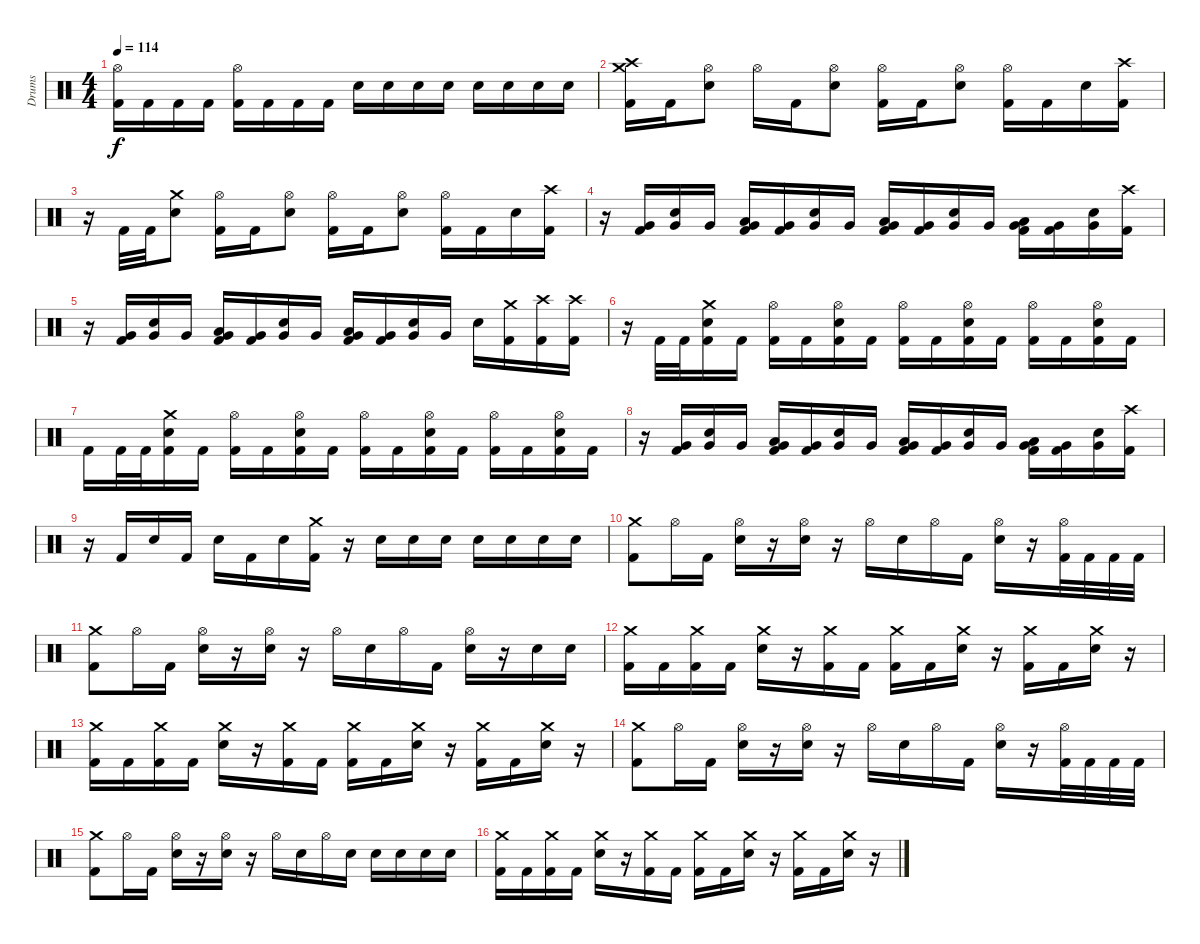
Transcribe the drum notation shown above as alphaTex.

\track ("Drums" "Drums") {instrument percussion}
\staff {score}
\articulation defaults
\ts (4 4)
\tempo 114
\clef neutral
\ks c
("Hi-Hat (open)" "Kick (hit) 2").16{dy f} "Kick (hit) 2".16 "Kick (hit) 2".16 "Kick (hit) 2".16 ("Hi-Hat (open)" "Kick (hit) 2").16 "Kick (hit) 2".16 "Kick (hit) 2".16 "Kick (hit) 2".16 "Snare (hit) 2".16 "Snare (hit) 2".16 "Snare (hit) 2".16 "Snare (hit) 2".16 "Snare (hit) 2".16 "Snare (hit) 2".16 "Snare (hit) 2".16 "Snare (hit) 2".16 |
("Crash high (hit)" "Crash medium (hit)" "Kick (hit) 2").16 "Kick (hit) 2".16 ("Hi-Hat (open)" "Snare (hit) 2").8 "Hi-Hat (open)".16 "Kick (hit) 2".16 ("Hi-Hat (open)" "Snare (hit) 2").8 ("Hi-Hat (open)" "Kick (hit) 2").16 "Kick (hit) 2".16 ("Hi-Hat (open)" "Snare (hit) 2").8 ("Hi-Hat (open)" "Kick (hit) 2").16 "Kick (hit) 2".16 "Snare (hit) 2".16 ("Crash high (hit)" "Kick (hit) 2").16 |
r.16 "Kick (hit) 2".32 "Kick (hit) 2".32 ("Crash medium (hit)" "Snare (hit) 2").8 ("Hi-Hat (open)" "Kick (hit) 2").16 "Kick (hit) 2".16 ("Hi-Hat (open)" "Snare (hit) 2").8 ("Hi-Hat (open)" "Kick (hit) 2").16 "Kick (hit) 2".16 ("Hi-Hat (open)" "Snare (hit) 2").8 ("Hi-Hat (open)" "Kick (hit) 2").16 "Kick (hit) 2".16 "Snare (hit) 2".16 ("Crash high (hit)" "Kick (hit) 2").16 |
r.16 ("Very Low Tom (hit)" "Kick (hit) 2").16 ("Very Low Tom (hit)" "Snare (hit) 2").16 "Very Low Tom (hit)".16 ("Very Low Tom (hit)" "Low Tom (hit)" "Kick (hit) 2").16 ("Very Low Tom (hit)" "Kick (hit) 2").16 ("Very Low Tom (hit)" "Snare (hit) 2").16 "Very Low Tom (hit)".16 ("Very Low Tom (hit)" "Low Tom (hit)" "Kick (hit) 2").16 ("Very Low Tom (hit)" "Kick (hit) 2").16 ("Very Low Tom (hit)" "Snare (hit) 2").16 "Very Low Tom (hit)".16 ("Very Low Tom (hit)" "Low Tom (hit)" "Kick (hit) 2").16 ("Very Low Tom (hit)" "Kick (hit) 2").16 ("Very Low Tom (hit)" "Snare (hit) 2").16 ("Crash high (hit)" "Kick (hit) 2").16 |
r.16 ("Very Low Tom (hit)" "Kick (hit) 2").16 ("Very Low Tom (hit)" "Snare (hit) 2").16 "Very Low Tom (hit)".16 ("Very Low Tom (hit)" "Low Tom (hit)" "Kick (hit) 2").16 ("Very Low Tom (hit)" "Kick (hit) 2").16 ("Very Low Tom (hit)" "Snare (hit) 2").16 "Very Low Tom (hit)".16 ("Very Low Tom (hit)" "Low Tom (hit)" "Kick (hit) 2").16 ("Very Low Tom (hit)" "Kick (hit) 2").16 ("Very Low Tom (hit)" "Snare (hit) 2").16 "Very Low Tom (hit)".16 "Snare (hit) 2".16 ("Crash medium (hit)" "Kick (hit) 2").16 ("Crash high (hit)" "Kick (hit) 2").16 ("Crash high (hit)" "Kick (hit) 2").16 |
r.16 "Kick (hit) 2".32 "Kick (hit) 2".32 ("Crash medium (hit)" "Snare (hit) 2" "Kick (hit) 2").16 "Kick (hit) 2".16 ("Hi-Hat (open)" "Kick (hit) 2").16 "Kick (hit) 2".16 ("Hi-Hat (open)" "Snare (hit) 2" "Kick (hit) 2").16 "Kick (hit) 2".16 ("Hi-Hat (open)" "Kick (hit) 2").16 "Kick (hit) 2".16 ("Hi-Hat (open)" "Snare (hit) 2" "Kick (hit) 2").16 "Kick (hit) 2".16 ("Hi-Hat (open)" "Kick (hit) 2").16 "Kick (hit) 2".16 ("Hi-Hat (open)" "Snare (hit) 2" "Kick (hit) 2").16 "Kick (hit) 2".16 |
"Kick (hit) 2".16 "Kick (hit) 2".32 "Kick (hit) 2".32 ("Crash medium (hit)" "Snare (hit) 2" "Kick (hit) 2").16 "Kick (hit) 2".16 ("Hi-Hat (open)" "Kick (hit) 2").16 "Kick (hit) 2".16 ("Hi-Hat (open)" "Snare (hit) 2" "Kick (hit) 2").16 "Kick (hit) 2".16 ("Hi-Hat (open)" "Kick (hit) 2").16 "Kick (hit) 2".16 ("Hi-Hat (open)" "Snare (hit) 2" "Kick (hit) 2").16 "Kick (hit) 2".16 ("Hi-Hat (open)" "Kick (hit) 2").16 "Kick (hit) 2".16 ("Hi-Hat (open)" "Snare (hit) 2" "Kick (hit) 2").16 "Kick (hit) 2".16 |
r.16 ("Very Low Tom (hit)" "Kick (hit) 2").16 ("Very Low Tom (hit)" "Snare (hit) 2").16 "Very Low Tom (hit)".16 ("Very Low Tom (hit)" "Low Tom (hit)" "Kick (hit) 2").16 ("Very Low Tom (hit)" "Kick (hit) 2").16 ("Very Low Tom (hit)" "Snare (hit) 2").16 "Very Low Tom (hit)".16 ("Very Low Tom (hit)" "Low Tom (hit)" "Kick (hit) 2").16 ("Very Low Tom (hit)" "Kick (hit) 2").16 ("Very Low Tom (hit)" "Snare (hit) 2").16 "Very Low Tom (hit)".16 ("Very Low Tom (hit)" "Low Tom (hit)" "Kick (hit) 2").16 ("Very Low Tom (hit)" "Kick (hit) 2").16 ("Very Low Tom (hit)" "Snare (hit) 2").16 ("Crash high (hit)" "Kick (hit) 2").16 |
r.16 "Kick (hit) 2".16 "Snare (hit) 2".16 "Kick (hit) 2".16 "Snare (hit) 2".16 "Kick (hit) 2".16 "Snare (hit) 2".16 ("Crash medium (hit)" "Kick (hit) 2").16 r.16 "Snare (hit) 2".16 "Snare (hit) 2".16 "Snare (hit) 2".16 "Snare (hit) 2".16 "Snare (hit) 2".16 "Snare (hit) 2".16 "Snare (hit) 2".16 |
("Crash medium (hit)" "Kick (hit) 2").8 "Hi-Hat (open)".16 "Kick (hit) 2".16 ("Hi-Hat (open)" "Snare (hit) 2").16 r.16 ("Hi-Hat (open)" "Snare (hit) 2").16 r.16 "Hi-Hat (open)".16 "Snare (hit) 2".16 "Hi-Hat (open)".16 "Kick (hit) 2".16 ("Hi-Hat (open)" "Snare (hit) 2").16 r.16 ("Hi-Hat (open)" "Kick (hit) 2").32 "Kick (hit) 2".32 "Kick (hit) 2".32 "Kick (hit) 2".32 |
("Crash medium (hit)" "Kick (hit) 2").8 "Hi-Hat (open)".16 "Kick (hit) 2".16 ("Hi-Hat (open)" "Snare (hit) 2").16 r.16 ("Hi-Hat (open)" "Snare (hit) 2").16 r.16 "Hi-Hat (open)".16 "Snare (hit) 2".16 "Hi-Hat (open)".16 "Kick (hit) 2".16 ("Hi-Hat (open)" "Snare (hit) 2").16 r.16 "Snare (hit) 2".16 "Snare (hit) 2".16 |
("Crash medium (hit)" "Kick (hit) 2").16 "Kick (hit) 2".16 ("Crash medium (hit)" "Kick (hit) 2").16 "Kick (hit) 2".16 ("Crash medium (hit)" "Snare (hit) 2").16 r.16 ("Crash medium (hit)" "Kick (hit) 2").16 "Kick (hit) 2".16 ("Crash medium (hit)" "Kick (hit) 2").16 "Kick (hit) 2".16 ("Crash medium (hit)" "Snare (hit) 2").16 r.16 ("Crash medium (hit)" "Kick (hit) 2").16 "Kick (hit) 2".16 ("Crash medium (hit)" "Snare (hit) 2").16 r.16 |
("Crash medium (hit)" "Kick (hit) 2").16 "Kick (hit) 2".16 ("Crash medium (hit)" "Kick (hit) 2").16 "Kick (hit) 2".16 ("Crash medium (hit)" "Snare (hit) 2").16 r.16 ("Crash medium (hit)" "Kick (hit) 2").16 "Kick (hit) 2".16 ("Crash medium (hit)" "Kick (hit) 2").16 "Kick (hit) 2".16 ("Crash medium (hit)" "Snare (hit) 2").16 r.16 ("Crash medium (hit)" "Kick (hit) 2").16 "Kick (hit) 2".16 ("Crash medium (hit)" "Snare (hit) 2").16 r.16 |
("Crash medium (hit)" "Kick (hit) 2").8 "Hi-Hat (open)".16 "Kick (hit) 2".16 ("Hi-Hat (open)" "Snare (hit) 2").16 r.16 ("Hi-Hat (open)" "Snare (hit) 2").16 r.16 "Hi-Hat (open)".16 "Snare (hit) 2".16 "Hi-Hat (open)".16 "Kick (hit) 2".16 ("Hi-Hat (open)" "Snare (hit) 2").16 r.16 ("Hi-Hat (open)" "Kick (hit) 2").32 "Kick (hit) 2".32 "Kick (hit) 2".32 "Kick (hit) 2".32 |
("Crash medium (hit)" "Kick (hit) 2").8 "Hi-Hat (open)".16 "Kick (hit) 2".16 ("Hi-Hat (open)" "Snare (hit) 2").16 r.16 ("Hi-Hat (open)" "Snare (hit) 2").16 r.16 "Hi-Hat (open)".16 "Snare (hit) 2".16 "Hi-Hat (open)".16 "Snare (hit) 2".16 "Snare (hit) 2".16 "Snare (hit) 2".16 "Snare (hit) 2".16 "Snare (hit) 2".16 |
("Crash medium (hit)" "Kick (hit) 2").16 "Kick (hit) 2".16 ("Crash medium (hit)" "Kick (hit) 2").16 "Kick (hit) 2".16 ("Crash medium (hit)" "Snare (hit) 2").16 r.16 ("Crash medium (hit)" "Kick (hit) 2").16 "Kick (hit) 2".16 ("Crash medium (hit)" "Kick (hit) 2").16 "Kick (hit) 2".16 ("Crash medium (hit)" "Snare (hit) 2").16 r.16 ("Crash medium (hit)" "Kick (hit) 2").16 "Kick (hit) 2".16 ("Crash medium (hit)" "Snare (hit) 2").16 r.16
